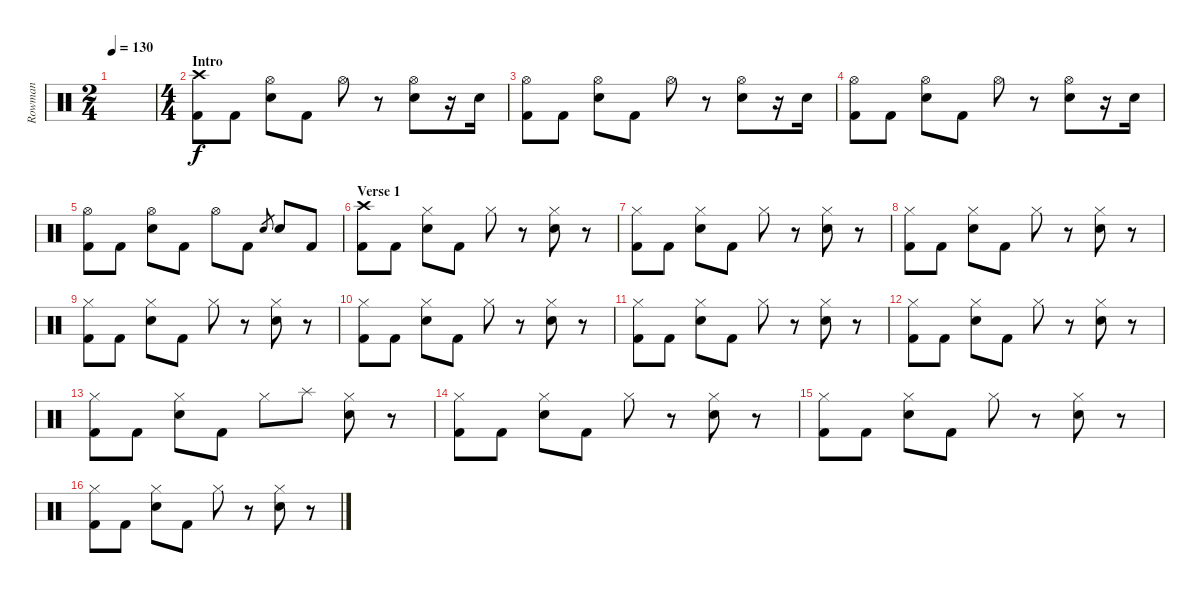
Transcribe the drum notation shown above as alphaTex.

\track ("Rowman" "Rowman") {instrument percussion}
\staff {score}
\articulation defaults
\ts (2 4)
\tempo 130
\clef neutral
\ks c
|
\ts (4 4)
\section ("" "Intro")
("Kick (hit) 2" "Crash high (hit)").8 "Kick (hit) 2".8 ("Electric Snare (hit)" "Hi-Hat (open)").8 "Kick (hit) 2".8 "Hi-Hat (open)".8 r.8 ("Electric Snare (hit)" "Hi-Hat (open)").8 r.16 "Electric Snare (hit)".16 |
("Kick (hit) 2" "Hi-Hat (open)").8 "Kick (hit) 2".8 ("Electric Snare (hit)" "Hi-Hat (open)").8 "Kick (hit) 2".8 "Hi-Hat (open)".8 r.8 ("Electric Snare (hit)" "Hi-Hat (open)").8 r.16 "Electric Snare (hit)".16 |
("Kick (hit) 2" "Hi-Hat (open)").8 "Kick (hit) 2".8 ("Electric Snare (hit)" "Hi-Hat (open)").8 "Kick (hit) 2".8 "Hi-Hat (open)".8 r.8 ("Electric Snare (hit)" "Hi-Hat (open)").8 r.16 "Electric Snare (hit)".16 |
("Kick (hit) 2" "Hi-Hat (open)").8 "Kick (hit) 2".8 ("Electric Snare (hit)" "Hi-Hat (open)").8 "Kick (hit) 2".8 "Hi-Hat (open)".8 "Kick (hit) 2".8 "Electric Snare (hit)".8{gr} "Electric Snare (hit)".8 "Kick (hit) 2".8 |
\section ("" "Verse 1")
("Kick (hit) 2" "Crash high (hit)").8 "Kick (hit) 2".8 ("Electric Snare (hit)" "Hi-Hat (closed)").8 "Kick (hit) 2".8 "Hi-Hat (closed)".8 r.8 ("Electric Snare (hit)" "Hi-Hat (closed)").8 r.8 |
("Kick (hit) 2" "Hi-Hat (closed)").8 "Kick (hit) 2".8 ("Electric Snare (hit)" "Hi-Hat (closed)").8 "Kick (hit) 2".8 "Hi-Hat (closed)".8 r.8 ("Electric Snare (hit)" "Hi-Hat (closed)").8 r.8 |
("Kick (hit) 2" "Hi-Hat (closed)").8 "Kick (hit) 2".8 ("Electric Snare (hit)" "Hi-Hat (closed)").8 "Kick (hit) 2".8 "Hi-Hat (closed)".8 r.8 ("Electric Snare (hit)" "Hi-Hat (closed)").8 r.8 |
("Kick (hit) 2" "Hi-Hat (closed)").8 "Kick (hit) 2".8 ("Electric Snare (hit)" "Hi-Hat (closed)").8 "Kick (hit) 2".8 "Hi-Hat (closed)".8 r.8 ("Electric Snare (hit)" "Hi-Hat (closed)").8 r.8 |
("Kick (hit) 2" "Hi-Hat (closed)").8 "Kick (hit) 2".8 ("Electric Snare (hit)" "Hi-Hat (closed)").8 "Kick (hit) 2".8 "Hi-Hat (closed)".8 r.8 ("Electric Snare (hit)" "Hi-Hat (closed)").8 r.8 |
("Kick (hit) 2" "Hi-Hat (closed)").8 "Kick (hit) 2".8 ("Electric Snare (hit)" "Hi-Hat (closed)").8 "Kick (hit) 2".8 "Hi-Hat (closed)".8 r.8 ("Electric Snare (hit)" "Hi-Hat (closed)").8 r.8 |
("Kick (hit) 2" "Hi-Hat (closed)").8 "Kick (hit) 2".8 ("Electric Snare (hit)" "Hi-Hat (closed)").8 "Kick (hit) 2".8 "Hi-Hat (closed)".8 r.8 ("Electric Snare (hit)" "Hi-Hat (closed)").8 r.8 |
("Kick (hit) 2" "Hi-Hat (closed)").8 "Kick (hit) 2".8 ("Electric Snare (hit)" "Hi-Hat (closed)").8 "Kick (hit) 2".8 "Hi-Hat (closed)".8 "Splash (hit)".8 ("Electric Snare (hit)" "Hi-Hat (closed)").8 r.8 |
("Kick (hit) 2" "Hi-Hat (closed)").8 "Kick (hit) 2".8 ("Electric Snare (hit)" "Hi-Hat (closed)").8 "Kick (hit) 2".8 "Hi-Hat (closed)".8 r.8 ("Electric Snare (hit)" "Hi-Hat (closed)").8 r.8 |
("Kick (hit) 2" "Hi-Hat (closed)").8 "Kick (hit) 2".8 ("Electric Snare (hit)" "Hi-Hat (closed)").8 "Kick (hit) 2".8 "Hi-Hat (closed)".8 r.8 ("Electric Snare (hit)" "Hi-Hat (closed)").8 r.8 |
("Kick (hit) 2" "Hi-Hat (closed)").8 "Kick (hit) 2".8 ("Electric Snare (hit)" "Hi-Hat (closed)").8 "Kick (hit) 2".8 "Hi-Hat (closed)".8 r.8 ("Electric Snare (hit)" "Hi-Hat (closed)").8 r.8
